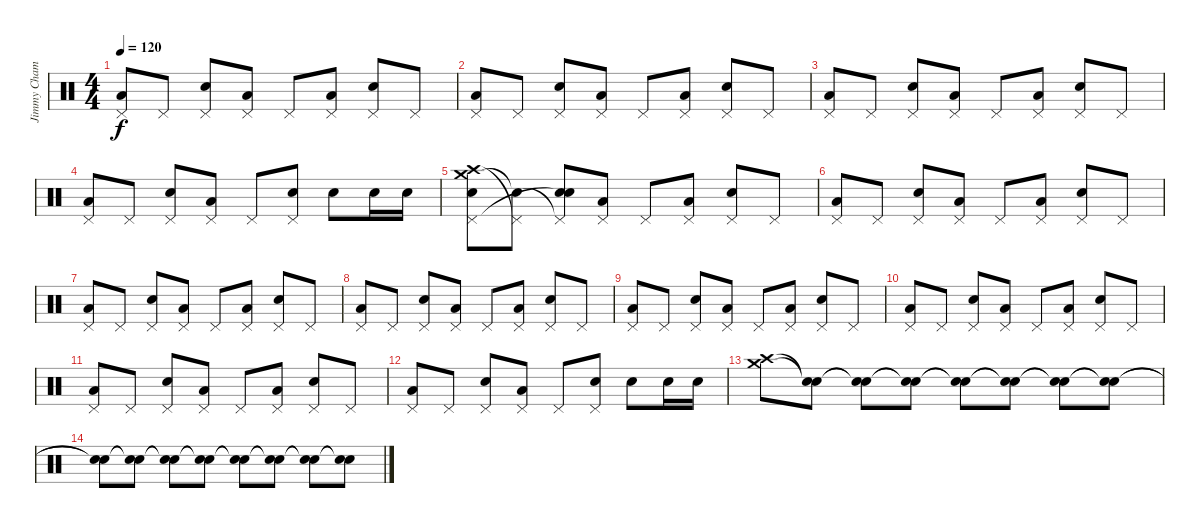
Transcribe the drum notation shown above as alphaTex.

\track ("Jimmy Chamberlin" "Jimmy Cham") {instrument percussion}
\staff {score}
\articulation defaults
\ts (4 4)
\tempo 120
\clef neutral
\ks c
("Low Floor Tom (hit)" "Pedal Hi-Hat (hit)").8{dy f} "Pedal Hi-Hat (hit)".8 ("Snare (hit) 2" "Pedal Hi-Hat (hit)").8 ("Low Floor Tom (hit)" "Pedal Hi-Hat (hit)").8 "Pedal Hi-Hat (hit)".8 ("Low Floor Tom (hit)" "Pedal Hi-Hat (hit)").8 ("Snare (hit) 2" "Pedal Hi-Hat (hit)").8 "Pedal Hi-Hat (hit)".8 |
("Low Floor Tom (hit)" "Pedal Hi-Hat (hit)").8 "Pedal Hi-Hat (hit)".8 ("Snare (hit) 2" "Pedal Hi-Hat (hit)").8 ("Low Floor Tom (hit)" "Pedal Hi-Hat (hit)").8 "Pedal Hi-Hat (hit)".8 ("Low Floor Tom (hit)" "Pedal Hi-Hat (hit)").8 ("Snare (hit) 2" "Pedal Hi-Hat (hit)").8 "Pedal Hi-Hat (hit)".8 |
("Low Floor Tom (hit)" "Pedal Hi-Hat (hit)").8 "Pedal Hi-Hat (hit)".8 ("Snare (hit) 2" "Pedal Hi-Hat (hit)").8 ("Low Floor Tom (hit)" "Pedal Hi-Hat (hit)").8 "Pedal Hi-Hat (hit)".8 ("Low Floor Tom (hit)" "Pedal Hi-Hat (hit)").8 ("Snare (hit) 2" "Pedal Hi-Hat (hit)").8 "Pedal Hi-Hat (hit)".8 |
("Low Floor Tom (hit)" "Pedal Hi-Hat (hit)").8 "Pedal Hi-Hat (hit)".8 ("Snare (hit) 2" "Pedal Hi-Hat (hit)").8 ("Low Floor Tom (hit)" "Pedal Hi-Hat (hit)").8 "Pedal Hi-Hat (hit)".8 ("Snare (hit) 2" "Pedal Hi-Hat (hit)").8 "Snare (hit) 2".8 "Snare (hit) 2".16 "Snare (hit) 2".16 |
("Crash high (hit)" "Crash medium (hit)" "Pedal Hi-Hat (hit)" "Snare (hit)").8 ("Pedal Hi-Hat (hit)"{t} "Snare (hit)"{t}).8 ("Snare (hit) 2" "Pedal Hi-Hat (hit)"{t} "Snare (hit)"{t}).8 ("Low Floor Tom (hit)" "Pedal Hi-Hat (hit)").8 "Pedal Hi-Hat (hit)".8 ("Low Floor Tom (hit)" "Pedal Hi-Hat (hit)").8 ("Snare (hit) 2" "Pedal Hi-Hat (hit)").8 "Pedal Hi-Hat (hit)".8 |
("Low Floor Tom (hit)" "Pedal Hi-Hat (hit)").8 "Pedal Hi-Hat (hit)".8 ("Snare (hit) 2" "Pedal Hi-Hat (hit)").8 ("Low Floor Tom (hit)" "Pedal Hi-Hat (hit)").8 "Pedal Hi-Hat (hit)".8 ("Low Floor Tom (hit)" "Pedal Hi-Hat (hit)").8 ("Snare (hit) 2" "Pedal Hi-Hat (hit)").8 "Pedal Hi-Hat (hit)".8 |
("Low Floor Tom (hit)" "Pedal Hi-Hat (hit)").8 "Pedal Hi-Hat (hit)".8 ("Snare (hit) 2" "Pedal Hi-Hat (hit)").8 ("Low Floor Tom (hit)" "Pedal Hi-Hat (hit)").8 "Pedal Hi-Hat (hit)".8 ("Low Floor Tom (hit)" "Pedal Hi-Hat (hit)").8 ("Snare (hit) 2" "Pedal Hi-Hat (hit)").8 "Pedal Hi-Hat (hit)".8 |
("Low Floor Tom (hit)" "Pedal Hi-Hat (hit)").8 "Pedal Hi-Hat (hit)".8 ("Snare (hit) 2" "Pedal Hi-Hat (hit)").8 ("Low Floor Tom (hit)" "Pedal Hi-Hat (hit)").8 "Pedal Hi-Hat (hit)".8 ("Low Floor Tom (hit)" "Pedal Hi-Hat (hit)").8 ("Snare (hit) 2" "Pedal Hi-Hat (hit)").8 "Pedal Hi-Hat (hit)".8 |
("Low Floor Tom (hit)" "Pedal Hi-Hat (hit)").8 "Pedal Hi-Hat (hit)".8 ("Snare (hit) 2" "Pedal Hi-Hat (hit)").8 ("Low Floor Tom (hit)" "Pedal Hi-Hat (hit)").8 "Pedal Hi-Hat (hit)".8 ("Low Floor Tom (hit)" "Pedal Hi-Hat (hit)").8 ("Snare (hit) 2" "Pedal Hi-Hat (hit)").8 "Pedal Hi-Hat (hit)".8 |
("Low Floor Tom (hit)" "Pedal Hi-Hat (hit)").8 "Pedal Hi-Hat (hit)".8 ("Snare (hit) 2" "Pedal Hi-Hat (hit)").8 ("Low Floor Tom (hit)" "Pedal Hi-Hat (hit)").8 "Pedal Hi-Hat (hit)".8 ("Low Floor Tom (hit)" "Pedal Hi-Hat (hit)").8 ("Snare (hit) 2" "Pedal Hi-Hat (hit)").8 "Pedal Hi-Hat (hit)".8 |
("Low Floor Tom (hit)" "Pedal Hi-Hat (hit)").8 "Pedal Hi-Hat (hit)".8 ("Snare (hit) 2" "Pedal Hi-Hat (hit)").8 ("Low Floor Tom (hit)" "Pedal Hi-Hat (hit)").8 "Pedal Hi-Hat (hit)".8 ("Low Floor Tom (hit)" "Pedal Hi-Hat (hit)").8 ("Snare (hit) 2" "Pedal Hi-Hat (hit)").8 "Pedal Hi-Hat (hit)".8 |
("Low Floor Tom (hit)" "Pedal Hi-Hat (hit)").8 "Pedal Hi-Hat (hit)".8 ("Snare (hit) 2" "Pedal Hi-Hat (hit)").8 ("Low Floor Tom (hit)" "Pedal Hi-Hat (hit)").8 "Pedal Hi-Hat (hit)".8 ("Snare (hit) 2" "Pedal Hi-Hat (hit)").8 "Snare (hit) 2".8 "Snare (hit) 2".16 "Snare (hit) 2".16 |
("Crash medium (hit)" "Crash high (hit)").8 ("Snare (hit)"{t} "Snare (hit)"{t}).8 ("Snare (hit)"{t} "Snare (hit)"{t}).8 ("Snare (hit)"{t} "Snare (hit)"{t}).8 ("Snare (hit)"{t} "Snare (hit)"{t}).8 ("Snare (hit)"{t} "Snare (hit)"{t}).8 ("Snare (hit)"{t} "Snare (hit)"{t}).8 ("Snare (hit)"{t} "Snare (hit)"{t}).8 |
("Snare (hit)"{t} "Snare (hit)"{t}).8 ("Snare (hit)"{t} "Snare (hit)"{t}).8 ("Snare (hit)"{t} "Snare (hit)"{t}).8 ("Snare (hit)"{t} "Snare (hit)"{t}).8 ("Snare (hit)"{t} "Snare (hit)"{t}).8 ("Snare (hit)"{t} "Snare (hit)"{t}).8 ("Snare (hit)"{t} "Snare (hit)"{t}).8 ("Snare (hit)"{t} "Snare (hit)"{t}).8
